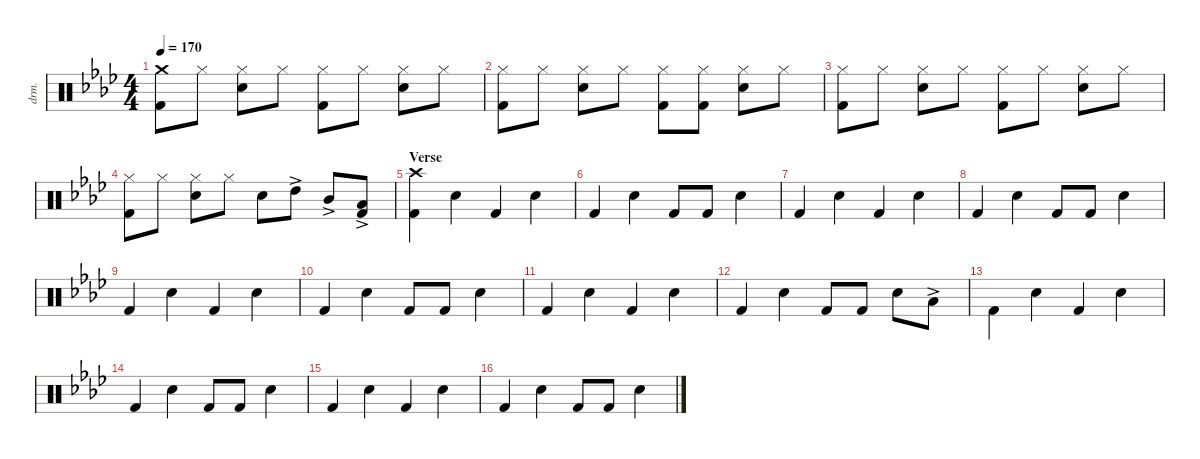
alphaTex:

\defaultSystemsLayout 4
\hideDynamics
\bracketExtendMode nobrackets
\otherSystemsTrackNameOrientation horizontal
\track ("Drumkit" "drm.") {instrument percussion}
\staff {score}
\articulation defaults
\ts (4 4)
\tempo 170
\clef neutral
\ks fminor
("Kick (hit) 2"{acc forcenatural} "Crash medium (hit)"{acc forcenatural}).8{dy mf beam Down} "Hi-Hat (closed)"{acc forcenatural}.8{beam Down} ("Hi-Hat (closed)"{acc forcenatural} "Snare (hit) 2"{acc forcenatural}).8{beam Down} "Hi-Hat (closed)"{acc forcenatural}.8{beam Down} ("Hi-Hat (closed)"{acc forcenatural} "Kick (hit) 2"{acc forcenatural}).8{beam Down} "Hi-Hat (closed)"{acc forcenatural}.8{beam Down} ("Hi-Hat (closed)"{acc forcenatural} "Snare (hit) 2"{acc forcenatural}).8{beam Down} "Hi-Hat (closed)"{acc forcenatural}.8{beam Down} |
("Hi-Hat (closed)"{acc forcenatural} "Kick (hit) 2"{acc forcenatural}).8{beam Down} "Hi-Hat (closed)"{acc forcenatural}.8{beam Down} ("Hi-Hat (closed)"{acc forcenatural} "Snare (hit) 2"{acc forcenatural}).8{beam Down} "Hi-Hat (closed)"{acc forcenatural}.8{beam Down} ("Hi-Hat (closed)"{acc forcenatural} "Kick (hit) 2"{acc forcenatural}).8{beam Down} ("Hi-Hat (closed)"{acc forcenatural} "Kick (hit) 2"{acc forcenatural}).8{beam Down} ("Hi-Hat (closed)"{acc forcenatural} "Snare (hit) 2"{acc forcenatural}).8{beam Down} "Hi-Hat (closed)"{acc forcenatural}.8{beam Down} |
("Hi-Hat (closed)"{acc forcenatural} "Kick (hit) 2"{acc forcenatural}).8{beam Down} "Hi-Hat (closed)"{acc forcenatural}.8{beam Down} ("Hi-Hat (closed)"{acc forcenatural} "Snare (hit) 2"{acc forcenatural}).8{beam Down} "Hi-Hat (closed)"{acc forcenatural}.8{beam Down} ("Hi-Hat (closed)"{acc forcenatural} "Kick (hit) 2"{acc forcenatural}).8{beam Down} "Hi-Hat (closed)"{acc forcenatural}.8{beam Down} ("Hi-Hat (closed)"{acc forcenatural} "Snare (hit) 2"{acc forcenatural}).8{beam Down} "Hi-Hat (closed)"{acc forcenatural}.8{beam Down} |
("Hi-Hat (closed)"{acc forcenatural} "Kick (hit) 2"{acc forcenatural}).8{beam Down} "Hi-Hat (closed)"{acc forcenatural}.8{beam Down} ("Hi-Hat (closed)"{acc forcenatural} "Snare (hit) 2"{acc forcenatural}).8{beam Down} "Hi-Hat (closed)"{acc forcenatural}.8{beam Down} "Snare (hit) 2"{acc forcenatural}.8{beam Down} "High Tom (hit)"{ac acc forcenatural}.8{beam Down} "Mid Tom (hit)"{ac acc forcenatural}.8{beam Up} ("Low Tom (hit)"{ac acc forcenatural} "Kick (hit) 2"{acc forcenatural}).8{beam Up} |
\section ("" "Verse")
("Kick (hit) 2"{acc forcenatural} "Crash high (hit)"{acc forcenatural}).4{beam Down} "Snare (hit) 2"{acc forcenatural}.4{beam Down} "Kick (hit) 2"{acc forcenatural}.4{beam Up} "Snare (hit) 2"{acc forcenatural}.4{beam Down} |
"Kick (hit) 2"{acc forcenatural}.4{beam Up} "Snare (hit) 2"{acc forcenatural}.4{beam Down} "Kick (hit) 2"{acc forcenatural}.8{beam Up} "Kick (hit) 2"{acc forcenatural}.8{beam Up} "Snare (hit) 2"{acc forcenatural}.4{beam Down} |
"Kick (hit) 2"{acc forcenatural}.4{beam Up} "Snare (hit) 2"{acc forcenatural}.4{beam Down} "Kick (hit) 2"{acc forcenatural}.4{beam Up} "Snare (hit) 2"{acc forcenatural}.4{beam Down} |
"Kick (hit) 2"{acc forcenatural}.4{beam Up} "Snare (hit) 2"{acc forcenatural}.4{beam Down} "Kick (hit) 2"{acc forcenatural}.8{beam Up} "Kick (hit) 2"{acc forcenatural}.8{beam Up} "Snare (hit) 2"{acc forcenatural}.4{beam Down} |
"Kick (hit) 2"{acc forcenatural}.4{beam Up} "Snare (hit) 2"{acc forcenatural}.4{beam Down} "Kick (hit) 2"{acc forcenatural}.4{beam Up} "Snare (hit) 2"{acc forcenatural}.4{beam Down} |
"Kick (hit) 2"{acc forcenatural}.4{beam Up} "Snare (hit) 2"{acc forcenatural}.4{beam Down} "Kick (hit) 2"{acc forcenatural}.8{beam Up} "Kick (hit) 2"{acc forcenatural}.8{beam Up} "Snare (hit) 2"{acc forcenatural}.4{beam Down} |
"Kick (hit) 2"{acc forcenatural}.4{beam Up} "Snare (hit) 2"{acc forcenatural}.4{beam Down} "Kick (hit) 2"{acc forcenatural}.4{beam Up} "Snare (hit) 2"{acc forcenatural}.4{beam Down} |
"Kick (hit) 2"{acc forcenatural}.4{beam Up} "Snare (hit) 2"{acc forcenatural}.4{beam Down} "Kick (hit) 2"{acc forcenatural}.8{beam Up} "Kick (hit) 2"{acc forcenatural}.8{beam Up} "Snare (hit) 2"{acc forcenatural}.8{beam Down} "Low Tom (hit)"{ac acc forcenatural}.8{beam Down} |
"Kick (hit) 2"{acc forcenatural}.4{beam Down} "Snare (hit) 2"{acc forcenatural}.4{beam Down} "Kick (hit) 2"{acc forcenatural}.4{beam Up} "Snare (hit) 2"{acc forcenatural}.4{beam Down} |
"Kick (hit) 2"{acc forcenatural}.4{beam Up} "Snare (hit) 2"{acc forcenatural}.4{beam Down} "Kick (hit) 2"{acc forcenatural}.8{beam Up} "Kick (hit) 2"{acc forcenatural}.8{beam Up} "Snare (hit) 2"{acc forcenatural}.4{beam Down} |
"Kick (hit) 2"{acc forcenatural}.4{beam Up} "Snare (hit) 2"{acc forcenatural}.4{beam Down} "Kick (hit) 2"{acc forcenatural}.4{beam Up} "Snare (hit) 2"{acc forcenatural}.4{beam Down} |
"Kick (hit) 2"{acc forcenatural}.4{beam Up} "Snare (hit) 2"{acc forcenatural}.4{beam Down} "Kick (hit) 2"{acc forcenatural}.8{beam Up} "Kick (hit) 2"{acc forcenatural}.8{beam Up} "Snare (hit) 2"{acc forcenatural}.4{beam Down}
